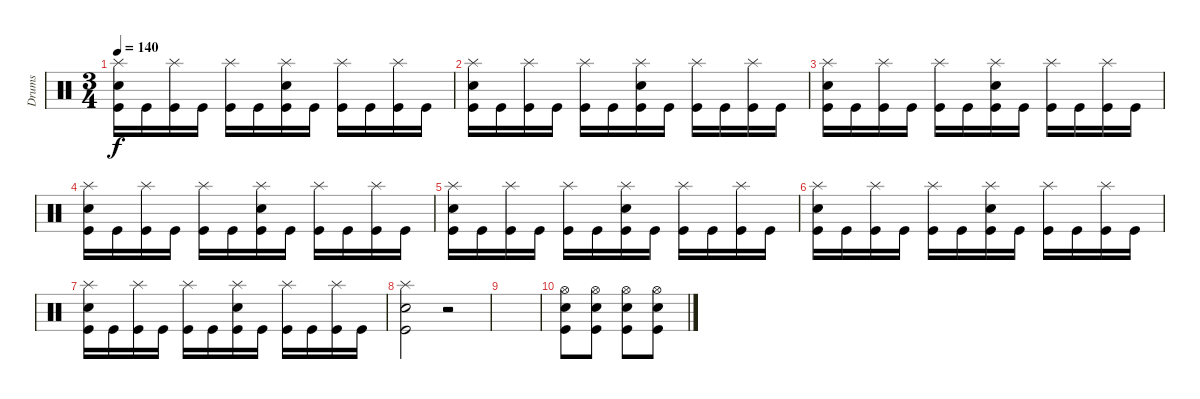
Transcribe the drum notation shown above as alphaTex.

\track ("Drums" "Drums") {instrument percussion}
\staff {score}
\articulation defaults
\ts (3 4)
\tempo 140
\clef neutral
\ks c
("Kick (hit)" "Snare (hit) 2" "Splash (hit)").16{dy f} "Kick (hit)".16 ("Kick (hit)" "Splash (hit)").16 "Kick (hit)".16 ("Kick (hit)" "Splash (hit)").16 "Kick (hit)".16 ("Kick (hit)" "Snare (hit) 2" "Splash (hit)").16 "Kick (hit)".16 ("Kick (hit)" "Splash (hit)").16 "Kick (hit)".16 ("Kick (hit)" "Splash (hit)").16 "Kick (hit)".16 |
("Kick (hit)" "Snare (hit) 2" "Splash (hit)").16 "Kick (hit)".16 ("Kick (hit)" "Splash (hit)").16 "Kick (hit)".16 ("Kick (hit)" "Splash (hit)").16 "Kick (hit)".16 ("Kick (hit)" "Snare (hit) 2" "Splash (hit)").16 "Kick (hit)".16 ("Kick (hit)" "Splash (hit)").16 "Kick (hit)".16 ("Kick (hit)" "Splash (hit)").16 "Kick (hit)".16 |
("Kick (hit)" "Snare (hit) 2" "Splash (hit)").16 "Kick (hit)".16 ("Kick (hit)" "Splash (hit)").16 "Kick (hit)".16 ("Kick (hit)" "Splash (hit)").16 "Kick (hit)".16 ("Kick (hit)" "Snare (hit) 2" "Splash (hit)").16 "Kick (hit)".16 ("Kick (hit)" "Splash (hit)").16 "Kick (hit)".16 ("Kick (hit)" "Splash (hit)").16 "Kick (hit)".16 |
("Kick (hit)" "Snare (hit) 2" "Splash (hit)").16 "Kick (hit)".16 ("Kick (hit)" "Splash (hit)").16 "Kick (hit)".16 ("Kick (hit)" "Splash (hit)").16 "Kick (hit)".16 ("Kick (hit)" "Snare (hit) 2" "Splash (hit)").16 "Kick (hit)".16 ("Kick (hit)" "Splash (hit)").16 "Kick (hit)".16 ("Kick (hit)" "Splash (hit)").16 "Kick (hit)".16 |
("Kick (hit)" "Snare (hit) 2" "Splash (hit)").16 "Kick (hit)".16 ("Kick (hit)" "Splash (hit)").16 "Kick (hit)".16 ("Kick (hit)" "Splash (hit)").16 "Kick (hit)".16 ("Kick (hit)" "Snare (hit) 2" "Splash (hit)").16 "Kick (hit)".16 ("Kick (hit)" "Splash (hit)").16 "Kick (hit)".16 ("Kick (hit)" "Splash (hit)").16 "Kick (hit)".16 |
("Kick (hit)" "Snare (hit) 2" "Splash (hit)").16 "Kick (hit)".16 ("Kick (hit)" "Splash (hit)").16 "Kick (hit)".16 ("Kick (hit)" "Splash (hit)").16 "Kick (hit)".16 ("Kick (hit)" "Snare (hit) 2" "Splash (hit)").16 "Kick (hit)".16 ("Kick (hit)" "Splash (hit)").16 "Kick (hit)".16 ("Kick (hit)" "Splash (hit)").16 "Kick (hit)".16 |
("Kick (hit)" "Snare (hit) 2" "Splash (hit)").16 "Kick (hit)".16 ("Kick (hit)" "Splash (hit)").16 "Kick (hit)".16 ("Kick (hit)" "Splash (hit)").16 "Kick (hit)".16 ("Kick (hit)" "Snare (hit) 2" "Splash (hit)").16 "Kick (hit)".16 ("Kick (hit)" "Splash (hit)").16 "Kick (hit)".16 ("Kick (hit)" "Splash (hit)").16 "Kick (hit)".16 |
("Kick (hit)" "Snare (hit) 2" "Splash (hit)").2 r.2 |
|
("Kick (hit)" "Snare (hit) 2" "Hi-Hat (open)").8 ("Kick (hit)" "Snare (hit) 2" "Hi-Hat (open)").8 ("Kick (hit)" "Snare (hit) 2" "Hi-Hat (open)").8 ("Kick (hit)" "Snare (hit) 2" "Hi-Hat (open)").8
